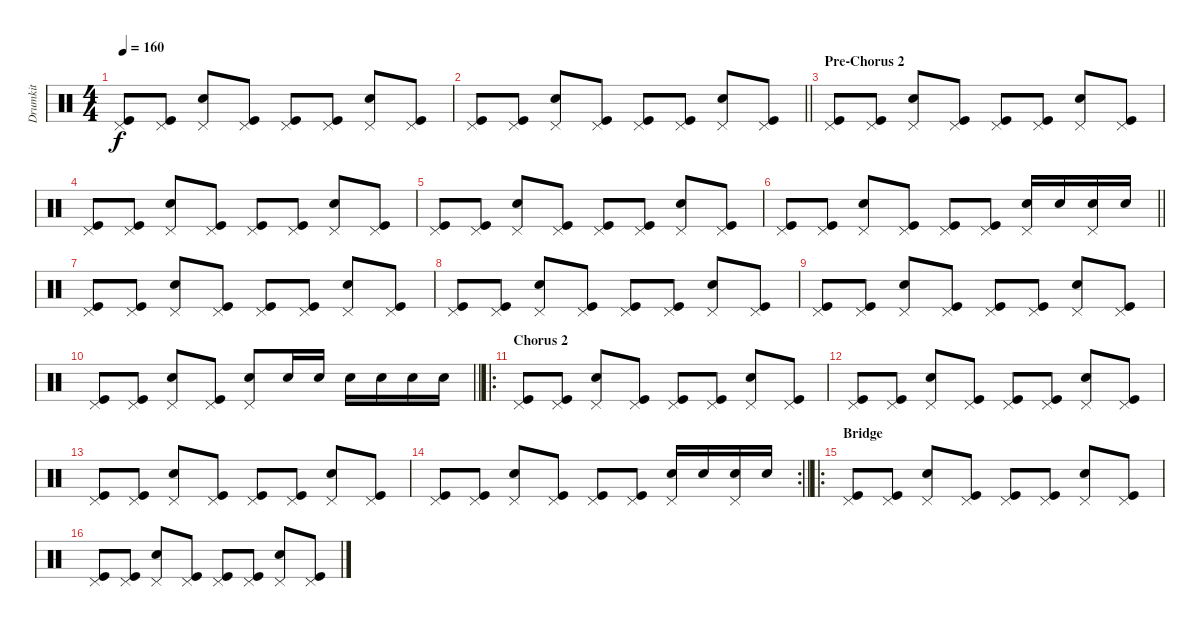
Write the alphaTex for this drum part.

\track ("Drumkit" "Drumkit") {instrument percussion}
\staff {score}
\articulation defaults
\ts (4 4)
\tempo 160
\clef neutral
\ks c
("Pedal Hi-Hat (hit)" "Kick (hit)").8{dy f} ("Pedal Hi-Hat (hit)" "Kick (hit)").8 ("Pedal Hi-Hat (hit)" "Snare (hit) 2").8 ("Pedal Hi-Hat (hit)" "Kick (hit)").8 ("Pedal Hi-Hat (hit)" "Kick (hit)").8 ("Pedal Hi-Hat (hit)" "Kick (hit)").8 ("Pedal Hi-Hat (hit)" "Snare (hit) 2").8 ("Pedal Hi-Hat (hit)" "Kick (hit)").8 |
\barLineRight lightlight
("Pedal Hi-Hat (hit)" "Kick (hit)").8 ("Pedal Hi-Hat (hit)" "Kick (hit)").8 ("Pedal Hi-Hat (hit)" "Snare (hit) 2").8 ("Pedal Hi-Hat (hit)" "Kick (hit)").8 ("Pedal Hi-Hat (hit)" "Kick (hit)").8 ("Pedal Hi-Hat (hit)" "Kick (hit)").8 ("Pedal Hi-Hat (hit)" "Snare (hit) 2").8 ("Pedal Hi-Hat (hit)" "Kick (hit)").8 |
\section ("" "Pre-Chorus 2")
("Pedal Hi-Hat (hit)" "Kick (hit)").8 ("Pedal Hi-Hat (hit)" "Kick (hit)").8 ("Pedal Hi-Hat (hit)" "Snare (hit) 2").8 ("Pedal Hi-Hat (hit)" "Kick (hit)").8 ("Pedal Hi-Hat (hit)" "Kick (hit)").8 ("Pedal Hi-Hat (hit)" "Kick (hit)").8 ("Pedal Hi-Hat (hit)" "Snare (hit) 2").8 ("Pedal Hi-Hat (hit)" "Kick (hit)").8 |
("Pedal Hi-Hat (hit)" "Kick (hit)").8 ("Pedal Hi-Hat (hit)" "Kick (hit)").8 ("Pedal Hi-Hat (hit)" "Snare (hit) 2").8 ("Pedal Hi-Hat (hit)" "Kick (hit)").8 ("Pedal Hi-Hat (hit)" "Kick (hit)").8 ("Pedal Hi-Hat (hit)" "Kick (hit)").8 ("Pedal Hi-Hat (hit)" "Snare (hit) 2").8 ("Pedal Hi-Hat (hit)" "Kick (hit)").8 |
("Pedal Hi-Hat (hit)" "Kick (hit)").8 ("Pedal Hi-Hat (hit)" "Kick (hit)").8 ("Pedal Hi-Hat (hit)" "Snare (hit) 2").8 ("Pedal Hi-Hat (hit)" "Kick (hit)").8 ("Pedal Hi-Hat (hit)" "Kick (hit)").8 ("Pedal Hi-Hat (hit)" "Kick (hit)").8 ("Pedal Hi-Hat (hit)" "Snare (hit) 2").8 ("Pedal Hi-Hat (hit)" "Kick (hit)").8 |
\barLineRight lightlight
("Pedal Hi-Hat (hit)" "Kick (hit)").8 ("Pedal Hi-Hat (hit)" "Kick (hit)").8 ("Pedal Hi-Hat (hit)" "Snare (hit) 2").8 ("Pedal Hi-Hat (hit)" "Kick (hit)").8 ("Pedal Hi-Hat (hit)" "Kick (hit)").8 ("Pedal Hi-Hat (hit)" "Kick (hit)").8 ("Pedal Hi-Hat (hit)" "Snare (hit) 2").16 "Snare (hit) 2".16 ("Pedal Hi-Hat (hit)" "Snare (hit) 2").16 "Snare (hit) 2".16 |
("Pedal Hi-Hat (hit)" "Kick (hit)").8 ("Pedal Hi-Hat (hit)" "Kick (hit)").8 ("Pedal Hi-Hat (hit)" "Snare (hit) 2").8 ("Pedal Hi-Hat (hit)" "Kick (hit)").8 ("Pedal Hi-Hat (hit)" "Kick (hit)").8 ("Pedal Hi-Hat (hit)" "Kick (hit)").8 ("Pedal Hi-Hat (hit)" "Snare (hit) 2").8 ("Pedal Hi-Hat (hit)" "Kick (hit)").8 |
("Pedal Hi-Hat (hit)" "Kick (hit)").8 ("Pedal Hi-Hat (hit)" "Kick (hit)").8 ("Pedal Hi-Hat (hit)" "Snare (hit) 2").8 ("Pedal Hi-Hat (hit)" "Kick (hit)").8 ("Pedal Hi-Hat (hit)" "Kick (hit)").8 ("Pedal Hi-Hat (hit)" "Kick (hit)").8 ("Pedal Hi-Hat (hit)" "Snare (hit) 2").8 ("Pedal Hi-Hat (hit)" "Kick (hit)").8 |
("Pedal Hi-Hat (hit)" "Kick (hit)").8 ("Pedal Hi-Hat (hit)" "Kick (hit)").8 ("Pedal Hi-Hat (hit)" "Snare (hit) 2").8 ("Pedal Hi-Hat (hit)" "Kick (hit)").8 ("Pedal Hi-Hat (hit)" "Kick (hit)").8 ("Pedal Hi-Hat (hit)" "Kick (hit)").8 ("Pedal Hi-Hat (hit)" "Snare (hit) 2").8 ("Pedal Hi-Hat (hit)" "Kick (hit)").8 |
\barLineRight lightlight
("Pedal Hi-Hat (hit)" "Kick (hit)").8 ("Pedal Hi-Hat (hit)" "Kick (hit)").8 ("Pedal Hi-Hat (hit)" "Snare (hit) 2").8 ("Pedal Hi-Hat (hit)" "Kick (hit)").8 ("Pedal Hi-Hat (hit)" "Snare (hit) 2").8 "Snare (hit) 2".16 "Snare (hit) 2".16 "Snare (hit) 2".16 "Snare (hit) 2".16 "Snare (hit) 2".16 "Snare (hit) 2".16 |
\ro
\section ("" "Chorus 2")
("Pedal Hi-Hat (hit)" "Kick (hit)").8 ("Pedal Hi-Hat (hit)" "Kick (hit)").8 ("Pedal Hi-Hat (hit)" "Snare (hit) 2").8 ("Pedal Hi-Hat (hit)" "Kick (hit)").8 ("Pedal Hi-Hat (hit)" "Kick (hit)").8 ("Pedal Hi-Hat (hit)" "Kick (hit)").8 ("Pedal Hi-Hat (hit)" "Snare (hit) 2").8 ("Pedal Hi-Hat (hit)" "Kick (hit)").8 |
("Pedal Hi-Hat (hit)" "Kick (hit)").8 ("Pedal Hi-Hat (hit)" "Kick (hit)").8 ("Pedal Hi-Hat (hit)" "Snare (hit) 2").8 ("Pedal Hi-Hat (hit)" "Kick (hit)").8 ("Pedal Hi-Hat (hit)" "Kick (hit)").8 ("Pedal Hi-Hat (hit)" "Kick (hit)").8 ("Pedal Hi-Hat (hit)" "Snare (hit) 2").8 ("Pedal Hi-Hat (hit)" "Kick (hit)").8 |
("Pedal Hi-Hat (hit)" "Kick (hit)").8 ("Pedal Hi-Hat (hit)" "Kick (hit)").8 ("Pedal Hi-Hat (hit)" "Snare (hit) 2").8 ("Pedal Hi-Hat (hit)" "Kick (hit)").8 ("Pedal Hi-Hat (hit)" "Kick (hit)").8 ("Pedal Hi-Hat (hit)" "Kick (hit)").8 ("Pedal Hi-Hat (hit)" "Snare (hit) 2").8 ("Pedal Hi-Hat (hit)" "Kick (hit)").8 |
\rc 2
\barLineRight lightlight
("Pedal Hi-Hat (hit)" "Kick (hit)").8 ("Pedal Hi-Hat (hit)" "Kick (hit)").8 ("Pedal Hi-Hat (hit)" "Snare (hit) 2").8 ("Pedal Hi-Hat (hit)" "Kick (hit)").8 ("Pedal Hi-Hat (hit)" "Kick (hit)").8 ("Pedal Hi-Hat (hit)" "Kick (hit)").8 ("Pedal Hi-Hat (hit)" "Snare (hit) 2").16 "Snare (hit) 2".16 ("Pedal Hi-Hat (hit)" "Snare (hit) 2").16 "Snare (hit) 2".16 |
\ro
\section ("" "Bridge")
("Pedal Hi-Hat (hit)" "Kick (hit)").8 ("Pedal Hi-Hat (hit)" "Kick (hit)").8 ("Pedal Hi-Hat (hit)" "Snare (hit) 2").8 ("Pedal Hi-Hat (hit)" "Kick (hit)").8 ("Pedal Hi-Hat (hit)" "Kick (hit)").8 ("Pedal Hi-Hat (hit)" "Kick (hit)").8 ("Pedal Hi-Hat (hit)" "Snare (hit) 2").8 ("Pedal Hi-Hat (hit)" "Kick (hit)").8 |
("Pedal Hi-Hat (hit)" "Kick (hit)").8 ("Pedal Hi-Hat (hit)" "Kick (hit)").8 ("Pedal Hi-Hat (hit)" "Snare (hit) 2").8 ("Pedal Hi-Hat (hit)" "Kick (hit)").8 ("Pedal Hi-Hat (hit)" "Kick (hit)").8 ("Pedal Hi-Hat (hit)" "Kick (hit)").8 ("Pedal Hi-Hat (hit)" "Snare (hit) 2").8 ("Pedal Hi-Hat (hit)" "Kick (hit)").8
